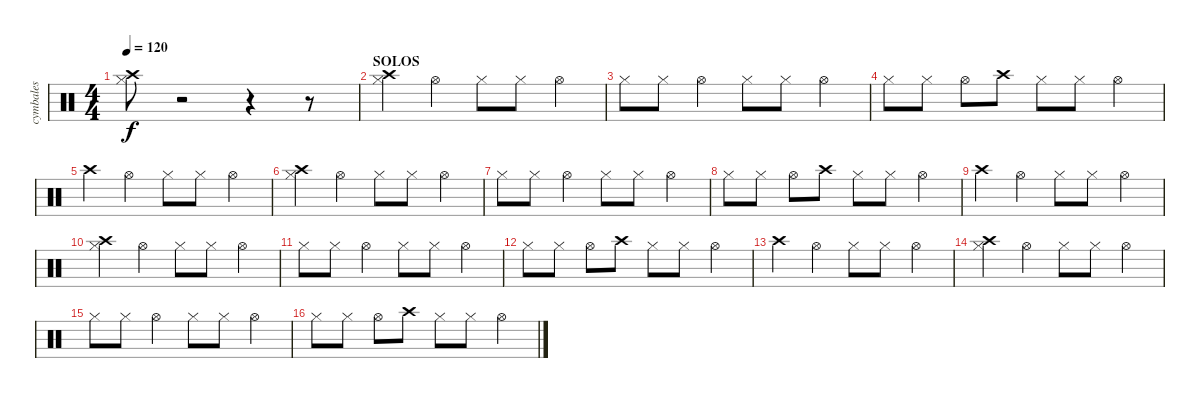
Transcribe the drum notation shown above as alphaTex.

\track ("cymbales" "cymbales") {instrument percussion}
\staff {score}
\articulation defaults
\ts (4 4)
\tempo 120
\clef neutral
\ks c
("Crash high (hit)"{t} "Hi-Hat (closed)"{t}).8{dy f} r.2 r.4 r.8 |
\section ("" "SOLOS")
("Crash high (hit)" "Hi-Hat (closed)").4 "Hi-Hat (open)".4 "Hi-Hat (closed)".8 "Hi-Hat (closed)".8 "Hi-Hat (open)".4 |
"Hi-Hat (closed)".8 "Hi-Hat (closed)".8 "Hi-Hat (open)".4 "Hi-Hat (closed)".8 "Hi-Hat (closed)".8 "Hi-Hat (open)".4 |
"Hi-Hat (closed)".8 "Hi-Hat (closed)".8 "Hi-Hat (open)".8 "Crash high (hit)".8 "Hi-Hat (closed)".8 "Hi-Hat (closed)".8 "Hi-Hat (open)".4 |
"Crash high (hit)".4 "Hi-Hat (open)".4 "Hi-Hat (closed)".8 "Hi-Hat (closed)".8 "Hi-Hat (open)".4 |
("Crash high (hit)" "Hi-Hat (closed)").4 "Hi-Hat (open)".4 "Hi-Hat (closed)".8 "Hi-Hat (closed)".8 "Hi-Hat (open)".4 |
"Hi-Hat (closed)".8 "Hi-Hat (closed)".8 "Hi-Hat (open)".4 "Hi-Hat (closed)".8 "Hi-Hat (closed)".8 "Hi-Hat (open)".4 |
"Hi-Hat (closed)".8 "Hi-Hat (closed)".8 "Hi-Hat (open)".8 "Crash high (hit)".8 "Hi-Hat (closed)".8 "Hi-Hat (closed)".8 "Hi-Hat (open)".4 |
"Crash high (hit)".4 "Hi-Hat (open)".4 "Hi-Hat (closed)".8 "Hi-Hat (closed)".8 "Hi-Hat (open)".4 |
("Crash high (hit)" "Hi-Hat (closed)").4 "Hi-Hat (open)".4 "Hi-Hat (closed)".8 "Hi-Hat (closed)".8 "Hi-Hat (open)".4 |
"Hi-Hat (closed)".8 "Hi-Hat (closed)".8 "Hi-Hat (open)".4 "Hi-Hat (closed)".8 "Hi-Hat (closed)".8 "Hi-Hat (open)".4 |
"Hi-Hat (closed)".8 "Hi-Hat (closed)".8 "Hi-Hat (open)".8 "Crash high (hit)".8 "Hi-Hat (closed)".8 "Hi-Hat (closed)".8 "Hi-Hat (open)".4 |
"Crash high (hit)".4 "Hi-Hat (open)".4 "Hi-Hat (closed)".8 "Hi-Hat (closed)".8 "Hi-Hat (open)".4 |
("Crash high (hit)" "Hi-Hat (closed)").4 "Hi-Hat (open)".4 "Hi-Hat (closed)".8 "Hi-Hat (closed)".8 "Hi-Hat (open)".4 |
"Hi-Hat (closed)".8 "Hi-Hat (closed)".8 "Hi-Hat (open)".4 "Hi-Hat (closed)".8 "Hi-Hat (closed)".8 "Hi-Hat (open)".4 |
"Hi-Hat (closed)".8 "Hi-Hat (closed)".8 "Hi-Hat (open)".8 "Crash high (hit)".8 "Hi-Hat (closed)".8 "Hi-Hat (closed)".8 "Hi-Hat (open)".4
